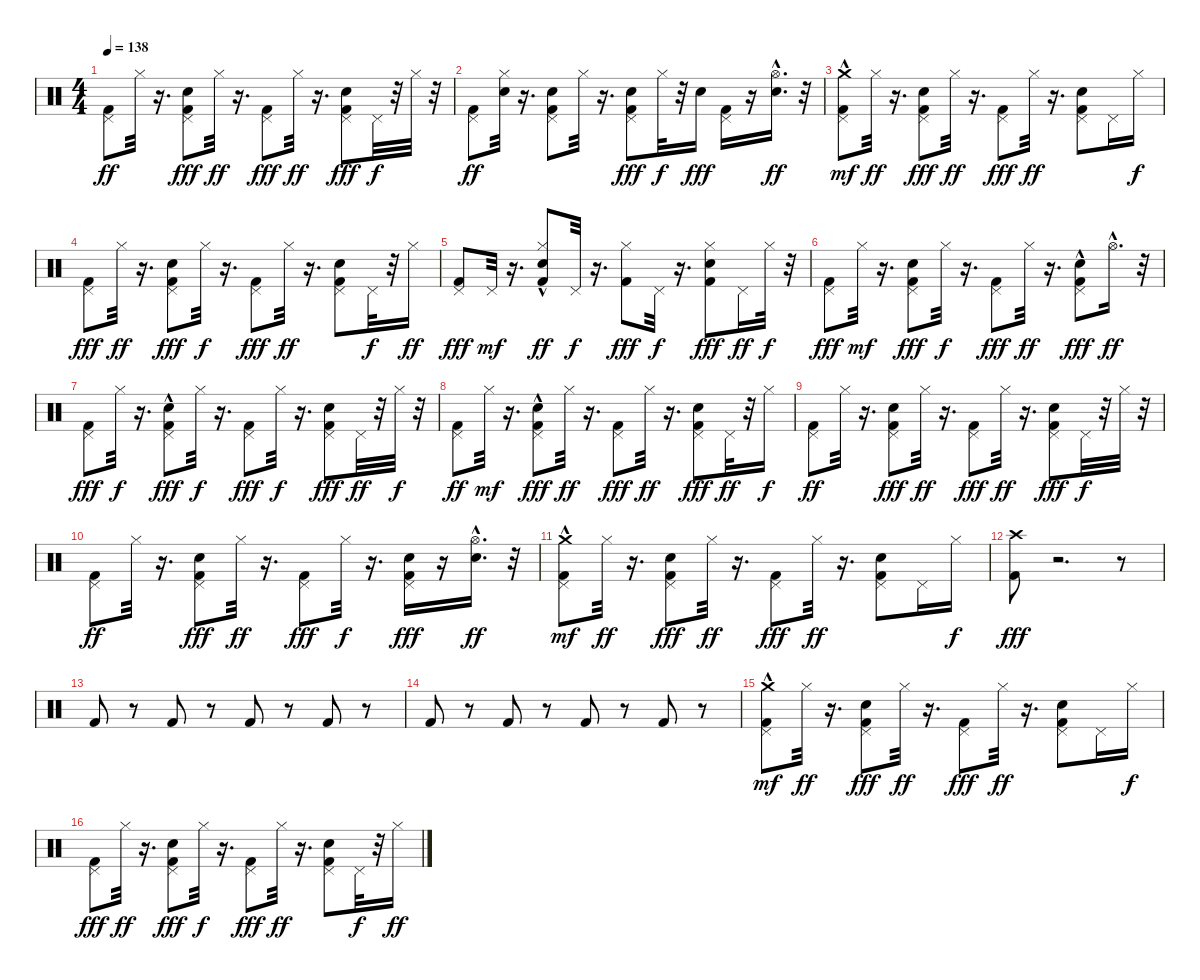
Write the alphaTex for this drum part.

\track "" {instrument percussion}
\staff {score}
\articulation defaults
\ts (4 4)
\tempo 138
\clef neutral
\ks c
("Kick (hit) 2" "Pedal Hi-Hat (hit)").8{dy ff} "Hi-Hat (closed)".32 r.16{d} ("Pedal Hi-Hat (hit)" "Snare (hit) 2" "Kick (hit) 2").8{dy fff} "Hi-Hat (closed)".32{dy ff} r.16{d} ("Kick (hit) 2" "Pedal Hi-Hat (hit)").8{dy fff} "Hi-Hat (closed)".32{dy ff} r.16{d} ("Pedal Hi-Hat (hit)" "Snare (hit) 2" "Kick (hit) 2").8{dy fff} "Pedal Hi-Hat (hit)".32{dy f} r.32 "Hi-Hat (closed)".32 r.32 |
("Kick (hit) 2" "Pedal Hi-Hat (hit)").8{dy ff} ("Hi-Hat (closed)" "Snare (hit) 2").32 r.16{d} ("Pedal Hi-Hat (hit)" "Kick (hit) 2" "Snare (hit) 2").8 "Hi-Hat (closed)".32 r.16{d} ("Snare (hit) 2" "Kick (hit) 2" "Pedal Hi-Hat (hit)").8{dy fff} "Hi-Hat (closed)".32{dy f} r.32 "Snare (hit) 2".16{dy fff} ("Pedal Hi-Hat (hit)" "Kick (hit) 2").16 r.16 ("Snare (hit) 2" "Hi-Hat (open)"{hac}).16{d dy ff} r.32 |
("Kick (hit) 2" "Pedal Hi-Hat (hit)" "Crash medium (hit)"{hac}).8{dy mf} "Hi-Hat (closed)".32{dy ff} r.16{d} ("Pedal Hi-Hat (hit)" "Kick (hit) 2" "Snare (hit) 2").8{dy fff} "Hi-Hat (closed)".32{dy ff} r.16{d} ("Pedal Hi-Hat (hit)" "Kick (hit) 2").8{dy fff} "Hi-Hat (closed)".32{dy ff} r.16{d} ("Snare (hit) 2" "Kick (hit) 2" "Pedal Hi-Hat (hit)").8 "Pedal Hi-Hat (hit)".16 "Hi-Hat (closed)".16{dy f} |
("Kick (hit) 2" "Pedal Hi-Hat (hit)").8{dy fff} "Hi-Hat (closed)".32{dy ff} r.16{d} ("Kick (hit) 2" "Snare (hit) 2" "Pedal Hi-Hat (hit)").8{dy fff} "Hi-Hat (closed)".32{dy f} r.16{d} ("Pedal Hi-Hat (hit)" "Kick (hit) 2").8{dy fff} "Hi-Hat (closed)".32{dy ff} r.16{d} ("Kick (hit) 2" "Snare (hit) 2" "Pedal Hi-Hat (hit)").8 "Pedal Hi-Hat (hit)".32{dy f} r.32 "Hi-Hat (closed)".16{dy ff} |
("Kick (hit) 2" "Pedal Hi-Hat (hit)").8{dy fff} "Pedal Hi-Hat (hit)".32{dy mf} r.16{d} ("Snare (hit) 2"{hac} "Kick (hit) 2" "Hi-Hat (closed)").8{dy ff} "Pedal Hi-Hat (hit)".32{dy f} r.16{d} ("Hi-Hat (closed)" "Kick (hit) 2").8{dy fff} "Pedal Hi-Hat (hit)".32{dy f} r.16{d} ("Snare (hit) 2" "Hi-Hat (closed)" "Kick (hit) 2").8{dy fff} "Pedal Hi-Hat (hit)".16{dy ff} "Hi-Hat (closed)".32{dy f} r.32 |
("Kick (hit) 2" "Pedal Hi-Hat (hit)").8{dy fff} "Hi-Hat (closed)".32{dy mf} r.16{d} ("Snare (hit) 2" "Kick (hit) 2" "Pedal Hi-Hat (hit)").8{dy fff} "Hi-Hat (closed)".32{dy f} r.16{d} ("Pedal Hi-Hat (hit)" "Kick (hit) 2").8{dy fff} "Hi-Hat (closed)".32{dy ff} r.16{d} ("Pedal Hi-Hat (hit)" "Snare (hit) 2"{hac} "Kick (hit) 2").8{dy fff} "Hi-Hat (open)"{hac}.16{d dy ff} r.32 |
("Kick (hit) 2" "Pedal Hi-Hat (hit)").8{dy fff} "Hi-Hat (closed)".32{dy f} r.16{d} ("Pedal Hi-Hat (hit)" "Snare (hit) 2"{hac} "Kick (hit) 2").8{dy fff} "Hi-Hat (closed)".32{dy f} r.16{d} ("Kick (hit) 2" "Pedal Hi-Hat (hit)").8{dy fff} "Hi-Hat (closed)".32{dy f} r.16{d} ("Kick (hit) 2" "Snare (hit) 2" "Pedal Hi-Hat (hit)").8{dy fff} "Pedal Hi-Hat (hit)".32{dy ff} r.32 "Hi-Hat (closed)".32{dy f} r.32 |
("Kick (hit) 2" "Pedal Hi-Hat (hit)").8{dy ff} "Hi-Hat (closed)".32{dy mf} r.16{d} ("Snare (hit) 2"{hac} "Kick (hit) 2" "Pedal Hi-Hat (hit)").8{dy fff} "Hi-Hat (closed)".32{dy ff} r.16{d} ("Pedal Hi-Hat (hit)" "Kick (hit) 2").8{dy fff} "Hi-Hat (closed)".32{dy ff} r.16{d} ("Snare (hit) 2" "Kick (hit) 2" "Pedal Hi-Hat (hit)").8{dy fff} "Pedal Hi-Hat (hit)".32{dy ff} r.32 "Hi-Hat (closed)".16{dy f} |
("Kick (hit) 2" "Pedal Hi-Hat (hit)").8{dy ff} "Hi-Hat (closed)".32 r.16{d} ("Pedal Hi-Hat (hit)" "Snare (hit) 2" "Kick (hit) 2").8{dy fff} "Hi-Hat (closed)".32{dy ff} r.16{d} ("Kick (hit) 2" "Pedal Hi-Hat (hit)").8{dy fff} "Hi-Hat (closed)".32{dy ff} r.16{d} ("Pedal Hi-Hat (hit)" "Snare (hit) 2" "Kick (hit) 2").8{dy fff} "Pedal Hi-Hat (hit)".32{dy f} r.32 "Hi-Hat (closed)".32 r.32 |
("Kick (hit) 2" "Pedal Hi-Hat (hit)").8{dy ff} "Hi-Hat (closed)".32 r.16{d} ("Snare (hit) 2" "Pedal Hi-Hat (hit)" "Kick (hit) 2").8{dy fff} "Hi-Hat (closed)".32{dy ff} r.16{d} ("Kick (hit) 2" "Pedal Hi-Hat (hit)").8{dy fff} "Hi-Hat (closed)".32{dy f} r.16{d} ("Pedal Hi-Hat (hit)" "Snare (hit) 2" "Kick (hit) 2").16{dy fff} r.16 ("Snare (hit) 2" "Hi-Hat (open)"{hac}).16{d dy ff} r.32 |
("Kick (hit) 2" "Pedal Hi-Hat (hit)" "Crash medium (hit)"{hac}).8{dy mf} "Hi-Hat (closed)".32{dy ff} r.16{d} ("Pedal Hi-Hat (hit)" "Kick (hit) 2" "Snare (hit) 2").8{dy fff} "Hi-Hat (closed)".32{dy ff} r.16{d} ("Pedal Hi-Hat (hit)" "Kick (hit) 2").8{dy fff} "Hi-Hat (closed)".32{dy ff} r.16{d} ("Snare (hit) 2" "Kick (hit) 2" "Pedal Hi-Hat (hit)").8 "Pedal Hi-Hat (hit)".16 "Hi-Hat (closed)".16{dy f} |
("Crash high (hit)" "Kick (hit) 2").8{dy fff} r.2{d} r.8 |
"Kick (hit) 2".8 r.8 "Kick (hit) 2".8 r.8 "Kick (hit) 2".8 r.8 "Kick (hit) 2".8 r.8 |
"Kick (hit) 2".8 r.8 "Kick (hit) 2".8 r.8 "Kick (hit) 2".8 r.8 "Kick (hit) 2".8 r.8 |
("Kick (hit) 2" "Pedal Hi-Hat (hit)" "Crash medium (hit)"{hac}).8{dy mf} "Hi-Hat (closed)".32{dy ff} r.16{d} ("Pedal Hi-Hat (hit)" "Kick (hit) 2" "Snare (hit) 2").8{dy fff} "Hi-Hat (closed)".32{dy ff} r.16{d} ("Pedal Hi-Hat (hit)" "Kick (hit) 2").8{dy fff} "Hi-Hat (closed)".32{dy ff} r.16{d} ("Snare (hit) 2" "Kick (hit) 2" "Pedal Hi-Hat (hit)").8 "Pedal Hi-Hat (hit)".16 "Hi-Hat (closed)".16{dy f} |
("Kick (hit) 2" "Pedal Hi-Hat (hit)").8{dy fff} "Hi-Hat (closed)".32{dy ff} r.16{d} ("Kick (hit) 2" "Snare (hit) 2" "Pedal Hi-Hat (hit)").8{dy fff} "Hi-Hat (closed)".32{dy f} r.16{d} ("Pedal Hi-Hat (hit)" "Kick (hit) 2").8{dy fff} "Hi-Hat (closed)".32{dy ff} r.16{d} ("Kick (hit) 2" "Snare (hit) 2" "Pedal Hi-Hat (hit)").8 "Pedal Hi-Hat (hit)".32{dy f} r.32 "Hi-Hat (closed)".16{dy ff}
